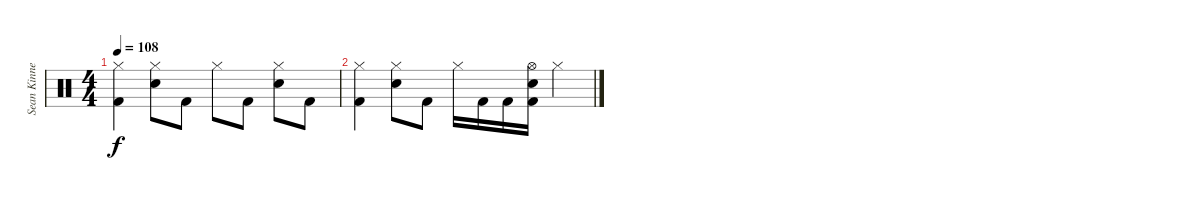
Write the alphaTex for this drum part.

\track ("Sean Kinney- Drums" "Sean Kinne") {instrument percussion}
\staff {score}
\articulation defaults
\ts (4 4)
\tempo 108
\clef neutral
\ks c
("Hi-Hat (closed)" "Kick (hit) 2").4{dy f} ("Hi-Hat (closed)" "Electric Snare (hit)").8 "Kick (hit) 2".8 "Hi-Hat (closed)".8 "Kick (hit) 2".8 ("Hi-Hat (closed)" "Electric Snare (hit)").8 "Kick (hit) 2".8 |
("Hi-Hat (closed)" "Kick (hit) 2").4 ("Hi-Hat (closed)" "Electric Snare (hit)").8 "Kick (hit) 2".8 "Hi-Hat (closed)".16 "Kick (hit) 2".16 "Kick (hit) 2".16 ("Hi-Hat (open)" "Electric Snare (hit)" "Kick (hit) 2").16 "Hi-Hat (closed)".4
